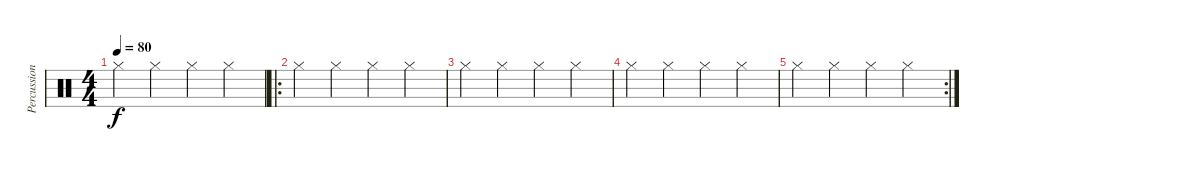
\track ("Percussion" "Percussion") {instrument percussion}
\staff {score}
\articulation defaults
\ts (4 4)
\tempo 80
\clef neutral
\ks c "Hi-Hat (closed)".4{dy f} "Hi-Hat (closed)".4 "Hi-Hat (closed)".4 "Hi-Hat (closed)".4
|
\ro "Hi-Hat (closed)".4 "Hi-Hat (closed)".4 "Hi-Hat (closed)".4 "Hi-Hat (closed)".4
|
"Hi-Hat (closed)".4 "Hi-Hat (closed)".4 "Hi-Hat (closed)".4 "Hi-Hat (closed)".4 |
"Hi-Hat (closed)".4 "Hi-Hat (closed)".4 "Hi-Hat (closed)".4 "Hi-Hat (closed)".4 |
\rc 2 "Hi-Hat (closed)".4 "Hi-Hat (closed)".4 "Hi-Hat (closed)".4 "Hi-Hat (closed)".4
